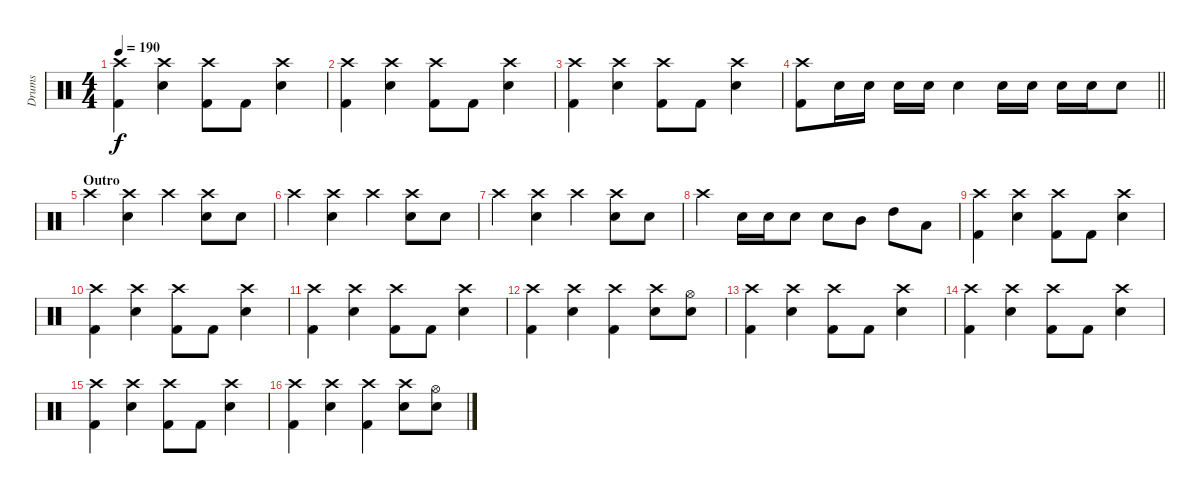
\track ("Drums" "Drums") {instrument percussion}
\staff {score}
\articulation defaults
\ts (4 4)
\tempo 190
\clef neutral
\ks c
("Crash high (hit)" "Kick (hit) 2").4{dy f} ("Crash high (hit)" "Electric Snare (hit)").4 ("Crash high (hit)" "Kick (hit) 2").8 "Kick (hit) 2".8 ("Crash high (hit)" "Electric Snare (hit)").4 |
("Crash high (hit)" "Kick (hit) 2").4 ("Crash high (hit)" "Electric Snare (hit)").4 ("Crash high (hit)" "Kick (hit) 2").8 "Kick (hit) 2".8 ("Crash high (hit)" "Electric Snare (hit)").4 |
("Crash high (hit)" "Kick (hit) 2").4 ("Crash high (hit)" "Electric Snare (hit)").4 ("Crash high (hit)" "Kick (hit) 2").8 "Kick (hit) 2".8 ("Crash high (hit)" "Electric Snare (hit)").4 |
\barLineRight lightlight
("Crash high (hit)" "Kick (hit) 2").8 "Electric Snare (hit)".16 "Electric Snare (hit)".16 "Electric Snare (hit)".16 "Electric Snare (hit)".16 "Electric Snare (hit)".4 "Electric Snare (hit)".16 "Electric Snare (hit)".16 "Electric Snare (hit)".16 "Electric Snare (hit)".16 "Electric Snare (hit)".8 |
\section ("" "Outro")
"Crash high (hit)".4 ("Crash high (hit)" "Electric Snare (hit)").4 "Crash high (hit)".4 ("Crash high (hit)" "Electric Snare (hit)").8 "Electric Snare (hit)".8 |
"Crash high (hit)".4 ("Crash high (hit)" "Electric Snare (hit)").4 "Crash high (hit)".4 ("Crash high (hit)" "Electric Snare (hit)").8 "Electric Snare (hit)".8 |
"Crash high (hit)".4 ("Crash high (hit)" "Electric Snare (hit)").4 "Crash high (hit)".4 ("Crash high (hit)" "Electric Snare (hit)").8 "Electric Snare (hit)".8 |
"Crash high (hit)".4 "Electric Snare (hit)".16 "Electric Snare (hit)".16 "Electric Snare (hit)".8 "Electric Snare (hit)".8 "Mid Tom (hit)".8 "High Tom (hit)".8 "Low Floor Tom (hit)".8 |
("Crash high (hit)" "Kick (hit) 2").4 ("Crash high (hit)" "Electric Snare (hit)").4 ("Crash high (hit)" "Kick (hit) 2").8 "Kick (hit) 2".8 ("Crash high (hit)" "Electric Snare (hit)").4 |
("Crash high (hit)" "Kick (hit) 2").4 ("Crash high (hit)" "Electric Snare (hit)").4 ("Crash high (hit)" "Kick (hit) 2").8 "Kick (hit) 2".8 ("Crash high (hit)" "Electric Snare (hit)").4 |
("Crash high (hit)" "Kick (hit) 2").4 ("Crash high (hit)" "Electric Snare (hit)").4 ("Crash high (hit)" "Kick (hit) 2").8 "Kick (hit) 2".8 ("Crash high (hit)" "Electric Snare (hit)").4 |
("Crash high (hit)" "Kick (hit) 2").4 ("Crash high (hit)" "Electric Snare (hit)").4 ("Crash high (hit)" "Kick (hit) 2").4 ("Crash high (hit)" "Electric Snare (hit)").8 ("Hi-Hat (open)" "Electric Snare (hit)").8 |
("Crash high (hit)" "Kick (hit) 2").4 ("Crash high (hit)" "Electric Snare (hit)").4 ("Crash high (hit)" "Kick (hit) 2").8 "Kick (hit) 2".8 ("Crash high (hit)" "Electric Snare (hit)").4 |
("Crash high (hit)" "Kick (hit) 2").4 ("Crash high (hit)" "Electric Snare (hit)").4 ("Crash high (hit)" "Kick (hit) 2").8 "Kick (hit) 2".8 ("Crash high (hit)" "Electric Snare (hit)").4 |
("Crash high (hit)" "Kick (hit) 2").4 ("Crash high (hit)" "Electric Snare (hit)").4 ("Crash high (hit)" "Kick (hit) 2").8 "Kick (hit) 2".8 ("Crash high (hit)" "Electric Snare (hit)").4 |
("Crash high (hit)" "Kick (hit) 2").4 ("Crash high (hit)" "Electric Snare (hit)").4 ("Crash high (hit)" "Kick (hit) 2").4 ("Crash high (hit)" "Electric Snare (hit)").8 ("Hi-Hat (open)" "Electric Snare (hit)").8
